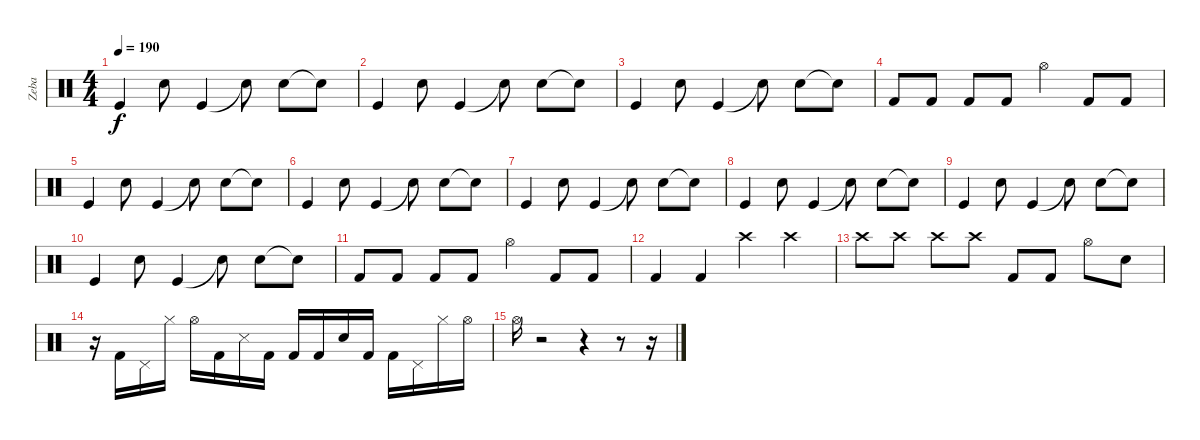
\track ("Zeba" "Zeba") {instrument percussion}
\staff {score}
\articulation defaults
\ts (4 4)
\tempo 190
\clef neutral
\ks c "Kick (hit)".4{dy f} "Snare (hit) 2".8 "Kick (hit)".4 "Snare (hit) 2"{t}.8 "Snare (hit) 2".8 "Snare (hit)"{t}.8
|
"Kick (hit)".4 "Snare (hit) 2".8 "Kick (hit)".4 "Snare (hit) 2"{t}.8 "Snare (hit) 2".8 "Snare (hit)"{t}.8 |
"Kick (hit)".4 "Snare (hit) 2".8 "Kick (hit)".4 "Snare (hit) 2"{t}.8 "Snare (hit) 2".8 "Snare (hit)"{t}.8 |
"Kick (hit) 2".8 "Kick (hit) 2".8 "Kick (hit) 2".8 "Kick (hit) 2".8 "Hi-Hat (open)".4 "Kick (hit) 2".8 "Kick (hit) 2".8 |
"Kick (hit)".4 "Snare (hit) 2".8 "Kick (hit)".4 "Snare (hit) 2"{t}.8 "Snare (hit) 2".8 "Snare (hit)"{t}.8 |
"Kick (hit)".4 "Snare (hit) 2".8 "Kick (hit)".4 "Snare (hit) 2"{t}.8 "Snare (hit) 2".8 "Snare (hit)"{t}.8 |
"Kick (hit)".4 "Snare (hit) 2".8 "Kick (hit)".4 "Snare (hit) 2"{t}.8 "Snare (hit) 2".8 "Snare (hit)"{t}.8 |
"Kick (hit)".4 "Snare (hit) 2".8 "Kick (hit)".4 "Snare (hit) 2"{t}.8 "Snare (hit) 2".8 "Snare (hit)"{t}.8 |
"Kick (hit)".4 "Snare (hit) 2".8 "Kick (hit)".4 "Snare (hit) 2"{t}.8 "Snare (hit) 2".8 "Snare (hit)"{t}.8 |
"Kick (hit)".4 "Snare (hit) 2".8 "Kick (hit)".4 "Snare (hit) 2"{t}.8 "Snare (hit) 2".8 "Snare (hit)"{t}.8 |
"Kick (hit) 2".8 "Kick (hit) 2".8 "Kick (hit) 2".8 "Kick (hit) 2".8 "Hi-Hat (open)".4 "Kick (hit) 2".8 "Kick (hit) 2".8 |
"Kick (hit) 2".4 "Kick (hit) 2".4 "Crash high (hit)".4 "Crash high (hit)".4 |
"Crash high (hit)".8 "Crash high (hit)".8 "Crash high (hit)".8 "Crash high (hit)".8 "Kick (hit) 2".8 "Kick (hit) 2".8 "Hi-Hat (open)".8 "Snare (hit) 2".8 |
r.16 "Kick (hit) 2".16 "Pedal Hi-Hat (hit)".16 "Hi-Hat (closed)".16 "Hi-Hat (open)".16 "Kick (hit) 2".16 "Snare (side stick) 3".16 "Kick (hit) 2".16 "Kick (hit) 2".16 "Kick (hit) 2".16 "Snare (hit) 2".16 "Kick (hit) 2".16 "Kick (hit) 2".16 "Pedal Hi-Hat (hit)".16 "Hi-Hat (closed)".16 "Hi-Hat (open)".16 |
"Hi-Hat (open)".16 r.2 r.4 r.8 r.16
